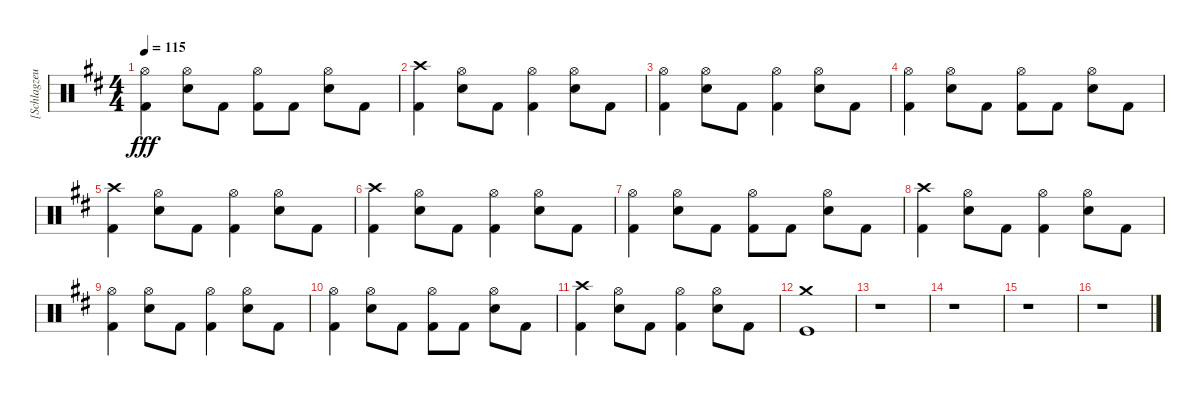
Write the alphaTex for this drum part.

\track ("[Schlagzeug]" "[Schlagzeu") {instrument percussion}
\staff {score}
\articulation defaults
\ts (4 4)
\tempo 115
\clef neutral
\ks bminor
("Hi-Hat (open)" "Kick (hit) 2").4{dy fff} ("Hi-Hat (open)" "Electric Snare (hit)").8 "Kick (hit) 2".8 ("Hi-Hat (open)" "Kick (hit) 2").8 "Kick (hit) 2".8 ("Hi-Hat (open)" "Electric Snare (hit)").8 "Kick (hit) 2".8 |
("Crash high (hit)" "Kick (hit) 2").4 ("Hi-Hat (open)" "Electric Snare (hit)").8 "Kick (hit) 2".8 ("Hi-Hat (open)" "Kick (hit) 2").4 ("Hi-Hat (open)" "Electric Snare (hit)").8 "Kick (hit) 2".8 |
("Hi-Hat (open)" "Kick (hit) 2").4 ("Hi-Hat (open)" "Electric Snare (hit)").8 "Kick (hit) 2".8 ("Hi-Hat (open)" "Kick (hit) 2").4 ("Hi-Hat (open)" "Electric Snare (hit)").8 "Kick (hit) 2".8 |
("Hi-Hat (open)" "Kick (hit) 2").4 ("Hi-Hat (open)" "Electric Snare (hit)").8 "Kick (hit) 2".8 ("Hi-Hat (open)" "Kick (hit) 2").8 "Kick (hit) 2".8 ("Hi-Hat (open)" "Electric Snare (hit)").8 "Kick (hit) 2".8 |
("Crash high (hit)" "Kick (hit) 2").4 ("Hi-Hat (open)" "Electric Snare (hit)").8 "Kick (hit) 2".8 ("Hi-Hat (open)" "Kick (hit) 2").4 ("Hi-Hat (open)" "Electric Snare (hit)").8 "Kick (hit) 2".8 |
("Crash high (hit)" "Kick (hit) 2").4 ("Hi-Hat (open)" "Electric Snare (hit)").8 "Kick (hit) 2".8 ("Hi-Hat (open)" "Kick (hit) 2").4 ("Hi-Hat (open)" "Electric Snare (hit)").8 "Kick (hit) 2".8 |
("Hi-Hat (open)" "Kick (hit) 2").4 ("Hi-Hat (open)" "Electric Snare (hit)").8 "Kick (hit) 2".8 ("Hi-Hat (open)" "Kick (hit) 2").8 "Kick (hit) 2".8 ("Hi-Hat (open)" "Electric Snare (hit)").8 "Kick (hit) 2".8 |
("Crash high (hit)" "Kick (hit) 2").4 ("Hi-Hat (open)" "Electric Snare (hit)").8 "Kick (hit) 2".8 ("Hi-Hat (open)" "Kick (hit) 2").4 ("Hi-Hat (open)" "Electric Snare (hit)").8 "Kick (hit) 2".8 |
("Hi-Hat (open)" "Kick (hit) 2").4 ("Hi-Hat (open)" "Electric Snare (hit)").8 "Kick (hit) 2".8 ("Hi-Hat (open)" "Kick (hit) 2").4 ("Hi-Hat (open)" "Electric Snare (hit)").8 "Kick (hit) 2".8 |
("Hi-Hat (open)" "Kick (hit) 2").4 ("Hi-Hat (open)" "Electric Snare (hit)").8 "Kick (hit) 2".8 ("Hi-Hat (open)" "Kick (hit) 2").8 "Kick (hit) 2".8 ("Hi-Hat (open)" "Electric Snare (hit)").8 "Kick (hit) 2".8 |
("Crash high (hit)" "Kick (hit) 2").4 ("Hi-Hat (open)" "Electric Snare (hit)").8 "Kick (hit) 2".8 ("Hi-Hat (open)" "Kick (hit) 2").4 ("Hi-Hat (open)" "Electric Snare (hit)").8 "Kick (hit) 2".8 |
("Kick (hit)" "Crash medium (hit)").1 |
r.1 |
r.1 |
r.1 |
r.1
